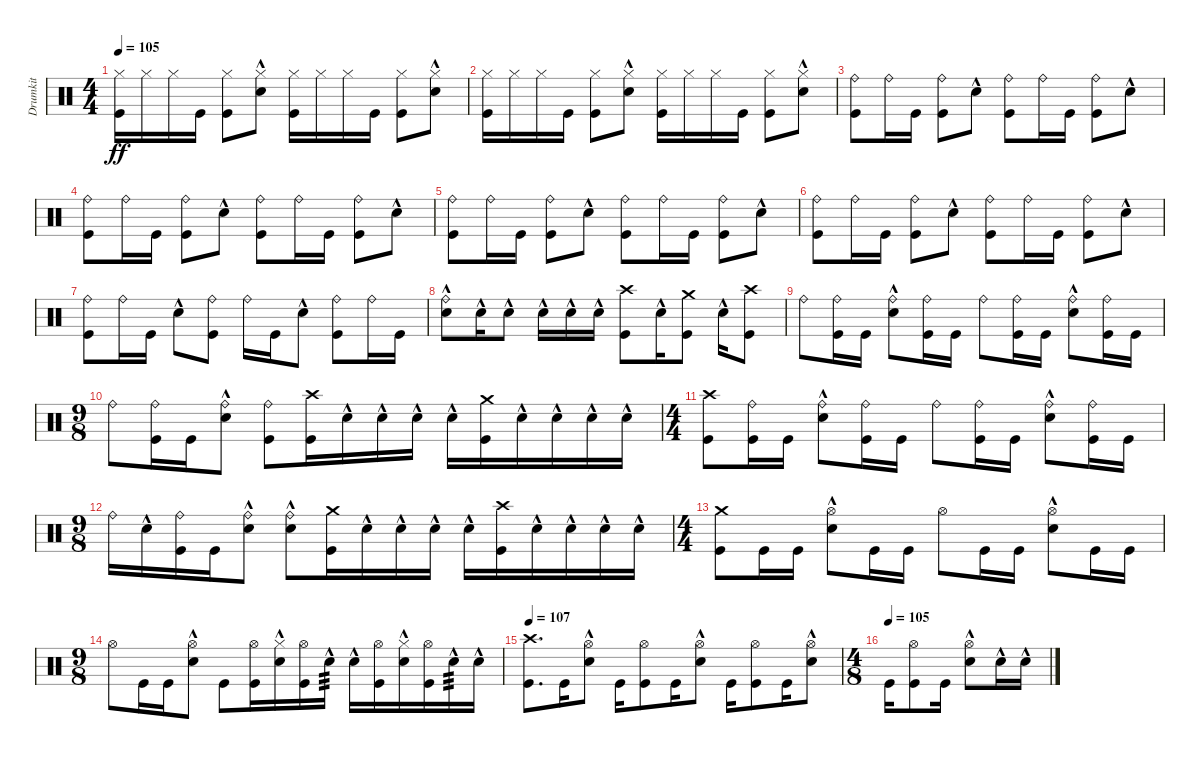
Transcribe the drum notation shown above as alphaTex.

\track ("Drumkit" "Drumkit") {instrument percussion}
\staff {score}
\articulation defaults
\ts (4 4)
\tempo 105
\clef neutral
\ks aminor
("Kick (hit)" "Hi-Hat (closed)").16{dy ff} "Hi-Hat (closed)".16 "Hi-Hat (closed)".16 "Kick (hit)".16 ("Kick (hit)" "Hi-Hat (closed)").8 ("Snare (hit) 2"{hac} "Hi-Hat (closed)").8 ("Kick (hit)" "Hi-Hat (closed)").16 "Hi-Hat (closed)".16 "Hi-Hat (closed)".16 "Kick (hit)".16 ("Kick (hit)" "Hi-Hat (closed)").8 ("Snare (hit) 2"{hac} "Hi-Hat (closed)").8 |
\ks c
("Kick (hit)" "Hi-Hat (closed)").16 "Hi-Hat (closed)".16 "Hi-Hat (closed)".16 "Kick (hit)".16 ("Kick (hit)" "Hi-Hat (closed)").8 ("Snare (hit) 2"{hac} "Hi-Hat (closed)").8 ("Kick (hit)" "Hi-Hat (closed)").16 "Hi-Hat (closed)".16 "Hi-Hat (closed)".16 "Kick (hit)".16 ("Kick (hit)" "Hi-Hat (closed)").8 ("Snare (hit) 2"{hac} "Hi-Hat (closed)").8 |
("Kick (hit)" "Ride (bell)").8 "Ride (bell)".16 "Kick (hit)".16 ("Kick (hit)" "Ride (bell)").8 "Snare (hit) 2"{hac}.8 ("Kick (hit)" "Ride (bell)").8 "Ride (bell)".16 "Kick (hit)".16 ("Kick (hit)" "Ride (bell)").8 "Snare (hit) 2"{hac}.8 |
\ks aminor
("Kick (hit)" "Ride (bell)").8 "Ride (bell)".16 "Kick (hit)".16 ("Kick (hit)" "Ride (bell)").8 "Snare (hit) 2"{hac}.8 ("Kick (hit)" "Ride (bell)").8 "Ride (bell)".16 "Kick (hit)".16 ("Kick (hit)" "Ride (bell)").8 "Snare (hit) 2"{hac}.8 |
("Kick (hit)" "Ride (bell)").8 "Ride (bell)".16 "Kick (hit)".16 ("Kick (hit)" "Ride (bell)").8 "Snare (hit) 2"{hac}.8 ("Kick (hit)" "Ride (bell)").8 "Ride (bell)".16 "Kick (hit)".16 ("Kick (hit)" "Ride (bell)").8 "Snare (hit) 2"{hac}.8 |
\ks c
("Kick (hit)" "Ride (bell)").8 "Ride (bell)".16 "Kick (hit)".16 ("Kick (hit)" "Ride (bell)").8 "Snare (hit) 2"{hac}.8 ("Kick (hit)" "Ride (bell)").8 "Ride (bell)".16 "Kick (hit)".16 ("Kick (hit)" "Ride (bell)").8 "Snare (hit) 2"{hac}.8 |
("Kick (hit)" "Ride (bell)").8 "Ride (bell)".16 "Kick (hit)".16 "Snare (hit) 2"{hac}.8 ("Kick (hit)" "Ride (bell)").8 "Ride (bell)".16 "Kick (hit)".16 "Snare (hit) 2"{hac}.8 ("Kick (hit)" "Ride (bell)").8 "Ride (bell)".16 "Kick (hit)".16 |
\ks aminor
("Ride (bell)" "Snare (hit) 2"{hac}).8 "Snare (hit) 2"{hac}.16 "Snare (hit) 2"{hac}.8 "Snare (hit) 2"{hac}.16 "Snare (hit) 2"{hac}.16 "Snare (hit) 2"{hac}.16 ("Kick (hit)" "Crash high (hit)").8 "Snare (hit) 2"{hac}.16 ("Kick (hit)" "Crash medium (hit)").8 "Snare (hit) 2"{hac}.16 ("Kick (hit)" "Crash high (hit)").8 |
"Ride (bell)".8 ("Kick (hit)" "Ride (bell)").16 "Kick (hit)".16 ("Snare (hit) 2"{hac} "Ride (bell)").8 ("Kick (hit)" "Ride (bell)").16 "Kick (hit)".16 "Ride (bell)".8 ("Kick (hit)" "Ride (bell)").16 "Kick (hit)".16 ("Snare (hit) 2"{hac} "Ride (bell)").8 ("Kick (hit)" "Ride (bell)").16 "Kick (hit)".16 |
\ts (9 8)
"Ride (bell)".8 ("Kick (hit)" "Ride (bell)").16 "Kick (hit)".16 ("Snare (hit) 2"{hac} "Ride (bell)").8 ("Kick (hit)" "Ride (bell)").8 ("Kick (hit)" "Crash high (hit)").16 "Snare (hit) 2"{hac}.16 "Snare (hit) 2"{hac}.16 "Snare (hit) 2"{hac}.16 "Snare (hit) 2"{hac}.16 ("Kick (hit)" "Crash medium (hit)").16 "Snare (hit) 2"{hac}.16 "Snare (hit) 2"{hac}.16 "Snare (hit) 2"{hac}.16 "Snare (hit) 2"{hac}.16 |
\ts (4 4)
("Kick (hit)" "Crash high (hit)").8 ("Kick (hit)" "Ride (bell)").16 "Kick (hit)".16 ("Snare (hit) 2"{hac} "Ride (bell)").8 ("Kick (hit)" "Ride (bell)").16 "Kick (hit)".16 "Ride (bell)".8 ("Kick (hit)" "Ride (bell)").16 "Kick (hit)".16 ("Snare (hit) 2"{hac} "Ride (bell)").8 ("Kick (hit)" "Ride (bell)").16 "Kick (hit)".16 |
\ts (9 8)
"Ride (bell)".16 "Snare (hit) 2"{hac}.16 ("Kick (hit)" "Ride (bell)").16 "Kick (hit)".16 ("Snare (hit) 2"{hac} "Ride (bell)").8 ("Snare (hit) 2"{hac} "Ride (bell)").8 ("Kick (hit)" "Crash medium (hit)").16 "Snare (hit) 2"{hac}.16 "Snare (hit) 2"{hac}.16 "Snare (hit) 2"{hac}.16 "Snare (hit) 2"{hac}.16 ("Kick (hit)" "Crash high (hit)").16 "Snare (hit) 2"{hac}.16 "Snare (hit) 2"{hac}.16 "Snare (hit) 2"{hac}.16 "Snare (hit) 2"{hac}.16 |
\ts (4 4)
("Kick (hit)" "Crash medium (hit)").8 "Kick (hit)".16 "Kick (hit)".16 ("Snare (hit) 2"{hac} "Hi-Hat (open)").8 "Kick (hit)".16 "Kick (hit)".16 "Hi-Hat (open)".8 "Kick (hit)".16 "Kick (hit)".16 ("Snare (hit) 2"{hac} "Hi-Hat (open)").8 "Kick (hit)".16 "Kick (hit)".16 |
\ts (9 8)
"Hi-Hat (open)".8 "Kick (hit)".16 "Kick (hit)".16 ("Snare (hit) 2"{hac} "Hi-Hat (open)").8 "Kick (hit)".8 ("Kick (hit)" "Hi-Hat (open)").16 ("Snare (hit) 2"{hac} "Hi-Hat (closed)").16 ("Kick (hit)" "Hi-Hat (open)").16 "Snare (hit) 2"{hac}.16{tp 3} "Snare (hit) 2"{hac}.16 ("Kick (hit)" "Hi-Hat (open)").16 ("Snare (hit) 2"{hac} "Hi-Hat (closed)").16 ("Kick (hit)" "Hi-Hat (open)").16 "Snare (hit) 2"{hac}.16{tp 3} "Snare (hit) 2"{hac}.16 |
\tempo 107
("Kick (hit)" "Crash high (hit)").8{d} "Kick (hit)".16 ("Snare (hit) 2"{hac} "Hi-Hat (open)").8 "Kick (hit)".16 ("Kick (hit)" "Hi-Hat (open)").8 "Kick (hit)".16 ("Snare (hit) 2"{hac} "Hi-Hat (open)").8 "Kick (hit)".16 ("Kick (hit)" "Hi-Hat (open)").8 "Kick (hit)".16 ("Snare (hit) 2"{hac} "Hi-Hat (open)").8 |
\ts (4 8)
\tempo (105)
"Kick (hit)".16 ("Kick (hit)" "Hi-Hat (open)").8 "Kick (hit)".16 ("Snare (hit) 2"{hac} "Hi-Hat (open)").8 "Snare (hit) 2"{hac}.16 "Snare (hit) 2"{hac}.16
